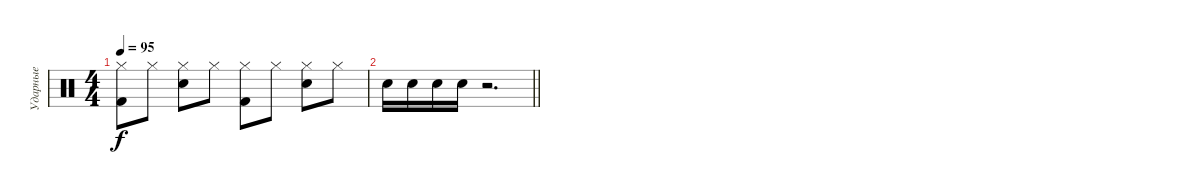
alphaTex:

\track ("Ударные" "Ударные") {instrument percussion}
\staff {score}
\articulation defaults
\ts (4 4)
\tempo 95
\clef neutral
\ks c
("Hi-Hat (closed)" "Kick (hit) 2").8{dy f} "Hi-Hat (closed)".8 ("Hi-Hat (closed)" "Electric Snare (hit)").8 "Hi-Hat (closed)".8 ("Hi-Hat (closed)" "Kick (hit) 2").8 "Hi-Hat (closed)".8 ("Hi-Hat (closed)" "Electric Snare (hit)").8 "Hi-Hat (closed)".8 |
\barLineRight lightlight "Electric Snare (hit)".16 "Electric Snare (hit)".16 "Electric Snare (hit)".16 "Electric Snare (hit)".16
r.2{d}
